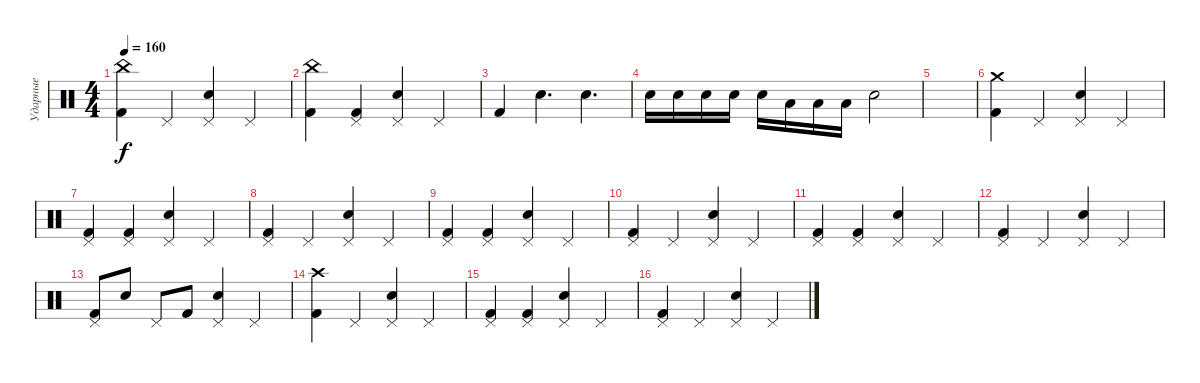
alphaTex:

\track ("Ударные" "Ударные") {instrument percussion}
\staff {score}
\articulation defaults
\ts (4 4)
\tempo 160
\clef neutral
\ks c
("China (hit)" "Kick (hit) 2").4{dy f} "Pedal Hi-Hat (hit)".4 ("Snare (hit) 2" "Pedal Hi-Hat (hit)").4 "Pedal Hi-Hat (hit)".4 |
("China (hit)" "Kick (hit) 2").4 ("Pedal Hi-Hat (hit)" "Kick (hit) 2").4 ("Snare (hit) 2" "Pedal Hi-Hat (hit)").4 "Pedal Hi-Hat (hit)".4 |
"Kick (hit) 2".4 "Snare (hit) 2".4{d} "Snare (hit) 2".4{d} |
"Snare (hit) 2".16 "Snare (hit) 2".16 "Snare (hit) 2".16 "Snare (hit) 2".16 "Snare (hit) 2".16 "Low Tom (hit)".16 "Low Tom (hit)".16 "Low Tom (hit)".16 "Snare (hit) 2".2 |
|
("Crash medium (hit)" "Kick (hit) 2").4 "Pedal Hi-Hat (hit)".4 ("Snare (hit) 2" "Pedal Hi-Hat (hit)").4 "Pedal Hi-Hat (hit)".4 |
("Pedal Hi-Hat (hit)" "Kick (hit) 2").4 ("Pedal Hi-Hat (hit)" "Kick (hit) 2").4 ("Snare (hit) 2" "Pedal Hi-Hat (hit)").4 "Pedal Hi-Hat (hit)".4 |
("Pedal Hi-Hat (hit)" "Kick (hit) 2").4 "Pedal Hi-Hat (hit)".4 ("Snare (hit) 2" "Pedal Hi-Hat (hit)").4 "Pedal Hi-Hat (hit)".4 |
("Pedal Hi-Hat (hit)" "Kick (hit) 2").4 ("Pedal Hi-Hat (hit)" "Kick (hit) 2").4 ("Snare (hit) 2" "Pedal Hi-Hat (hit)").4 "Pedal Hi-Hat (hit)".4 |
("Pedal Hi-Hat (hit)" "Kick (hit) 2").4 "Pedal Hi-Hat (hit)".4 ("Snare (hit) 2" "Pedal Hi-Hat (hit)").4 "Pedal Hi-Hat (hit)".4 |
("Pedal Hi-Hat (hit)" "Kick (hit) 2").4 ("Pedal Hi-Hat (hit)" "Kick (hit) 2").4 ("Snare (hit) 2" "Pedal Hi-Hat (hit)").4 "Pedal Hi-Hat (hit)".4 |
("Pedal Hi-Hat (hit)" "Kick (hit) 2").4 "Pedal Hi-Hat (hit)".4 ("Snare (hit) 2" "Pedal Hi-Hat (hit)").4 "Pedal Hi-Hat (hit)".4 |
("Pedal Hi-Hat (hit)" "Kick (hit) 2").8 "Snare (hit) 2".8 "Pedal Hi-Hat (hit)".8 "Kick (hit) 2".8 ("Snare (hit) 2" "Pedal Hi-Hat (hit)").4 "Pedal Hi-Hat (hit)".4 |
("Crash high (hit)" "Kick (hit) 2").4 "Pedal Hi-Hat (hit)".4 ("Snare (hit) 2" "Pedal Hi-Hat (hit)").4 "Pedal Hi-Hat (hit)".4 |
("Pedal Hi-Hat (hit)" "Kick (hit) 2").4 ("Pedal Hi-Hat (hit)" "Kick (hit) 2").4 ("Snare (hit) 2" "Pedal Hi-Hat (hit)").4 "Pedal Hi-Hat (hit)".4 |
("Pedal Hi-Hat (hit)" "Kick (hit) 2").4 "Pedal Hi-Hat (hit)".4 ("Snare (hit) 2" "Pedal Hi-Hat (hit)").4 "Pedal Hi-Hat (hit)".4
